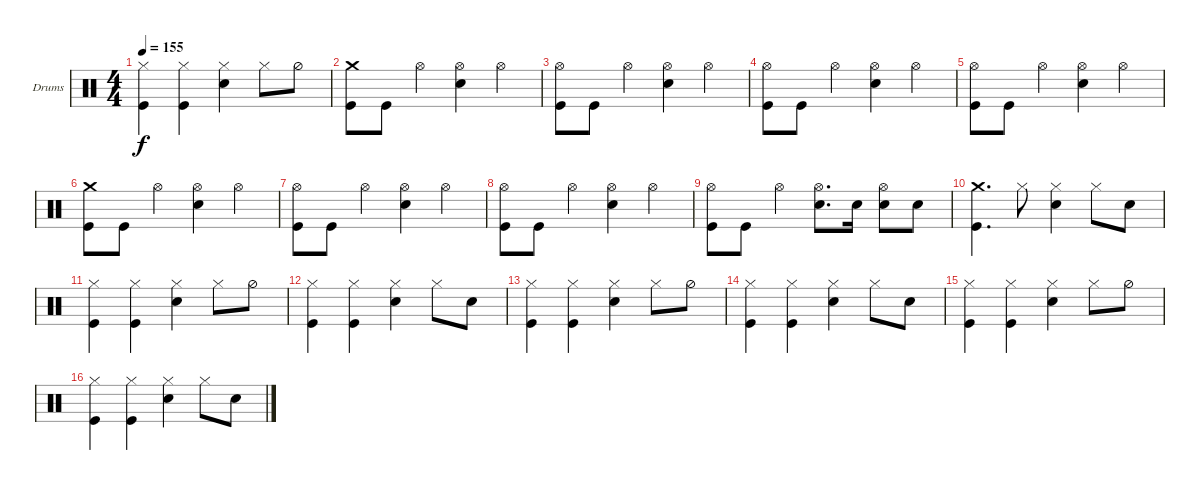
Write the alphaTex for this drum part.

\defaultSystemsLayout 4
\bracketExtendMode groupsimilarinstruments
\firstSystemTrackNameOrientation horizontal
\otherSystemsTrackNameOrientation horizontal
\track ("Drumkit" "Drums") {instrument percussion}
\staff {score}
\articulation defaults
\ts (4 4)
\tempo 155
\clef neutral
\ks c
("Hi-Hat (closed)" "Kick (hit)").4{dy f} ("Hi-Hat (closed)" "Kick (hit)").4 ("Hi-Hat (closed)" "Snare (hit) 2").4 "Hi-Hat (closed)".8 "Hi-Hat (half)".8 |
("Crash medium (hit)" "Kick (hit)").8 "Kick (hit)".8 "Hi-Hat (open)".4 ("Snare (hit) 2" "Hi-Hat (open)").4 "Hi-Hat (open)".4 |
("Kick (hit)" "Hi-Hat (open)").8 "Kick (hit)".8 "Hi-Hat (open)".4 ("Hi-Hat (open)" "Snare (hit) 2").4 "Hi-Hat (open)".4 |
("Kick (hit)" "Hi-Hat (open)").8 "Kick (hit)".8 "Hi-Hat (open)".4 ("Hi-Hat (open)" "Snare (hit) 2").4 "Hi-Hat (open)".4 |
("Kick (hit)" "Hi-Hat (open)").8 "Kick (hit)".8 "Hi-Hat (open)".4 ("Hi-Hat (open)" "Snare (hit) 2").4 "Hi-Hat (open)".4 |
("Crash medium (hit)" "Kick (hit)").8 "Kick (hit)".8 "Hi-Hat (open)".4 ("Snare (hit) 2" "Hi-Hat (open)").4 "Hi-Hat (open)".4 |
("Kick (hit)" "Hi-Hat (open)").8 "Kick (hit)".8 "Hi-Hat (open)".4 ("Hi-Hat (open)" "Snare (hit) 2").4 "Hi-Hat (open)".4 |
("Kick (hit)" "Hi-Hat (open)").8 "Kick (hit)".8 "Hi-Hat (open)".4 ("Hi-Hat (open)" "Snare (hit) 2").4 "Hi-Hat (open)".4 |
("Kick (hit)" "Hi-Hat (open)").8 "Kick (hit)".8 "Hi-Hat (open)".4 ("Hi-Hat (open)" "Snare (hit) 2").8{d} "Snare (hit) 2".16 ("Hi-Hat (open)" "Snare (hit) 2").8 "Snare (hit) 2".8 |
("Kick (hit)" "Crash medium (hit)").4{d} "Hi-Hat (closed)".8 ("Hi-Hat (closed)" "Snare (hit) 2").4 "Hi-Hat (closed)".8 "Snare (hit) 2".8 |
("Kick (hit)" "Hi-Hat (closed)").4 ("Kick (hit)" "Hi-Hat (closed)").4 ("Snare (hit) 2" "Hi-Hat (closed)").4 "Hi-Hat (closed)".8 "Hi-Hat (half)".8 |
("Hi-Hat (closed)" "Kick (hit)").4 ("Hi-Hat (closed)" "Kick (hit)").4 ("Hi-Hat (closed)" "Snare (hit) 2").4 "Hi-Hat (closed)".8 "Snare (hit) 2".8 |
("Hi-Hat (closed)" "Kick (hit)").4 ("Hi-Hat (closed)" "Kick (hit)").4 ("Hi-Hat (closed)" "Snare (hit) 2").4 "Hi-Hat (closed)".8 "Hi-Hat (half)".8 |
("Hi-Hat (closed)" "Kick (hit)").4 ("Hi-Hat (closed)" "Kick (hit)").4 ("Hi-Hat (closed)" "Snare (hit) 2").4 "Hi-Hat (closed)".8 "Snare (hit) 2".8 |
("Hi-Hat (closed)" "Kick (hit)").4 ("Hi-Hat (closed)" "Kick (hit)").4 ("Hi-Hat (closed)" "Snare (hit) 2").4 "Hi-Hat (closed)".8 "Hi-Hat (half)".8 |
("Hi-Hat (closed)" "Kick (hit)").4 ("Hi-Hat (closed)" "Kick (hit)").4 ("Hi-Hat (closed)" "Snare (hit) 2").4 "Hi-Hat (closed)".8 "Snare (hit) 2".8
